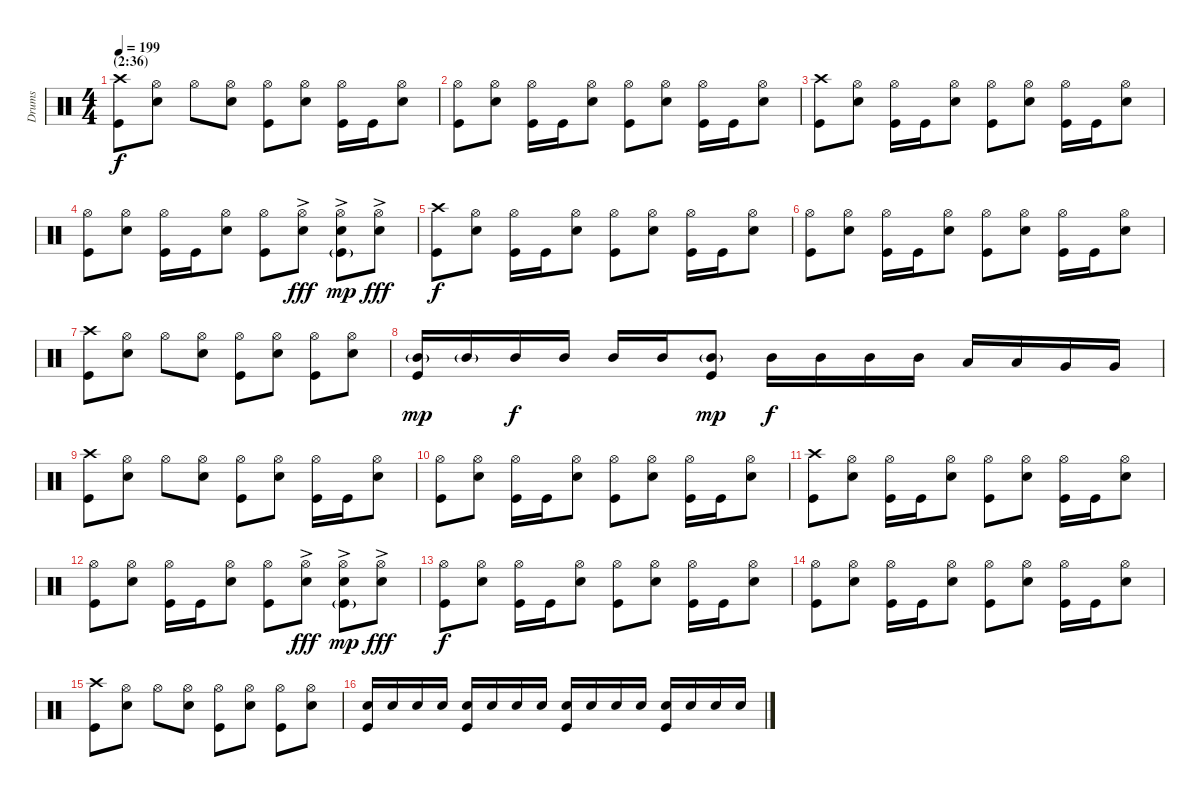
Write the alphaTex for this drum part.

\track ("Drums" "Drums") {instrument percussion}
\staff {score}
\articulation defaults
\ts (4 4)
\section ("" "(2:36)")
\tempo 199
\clef neutral
\ks c
("Crash high (hit)" "Kick (hit)").8{dy f} ("Hi-Hat (open)" "Snare (hit) 2").8 "Hi-Hat (open)".8 ("Hi-Hat (open)" "Snare (hit) 2").8 ("Hi-Hat (open)" "Kick (hit)").8 ("Hi-Hat (open)" "Snare (hit) 2").8 ("Hi-Hat (open)" "Kick (hit)").16 "Kick (hit)".16 ("Hi-Hat (open)" "Snare (hit) 2").8 |
("Hi-Hat (open)" "Kick (hit)").8 ("Hi-Hat (open)" "Snare (hit) 2").8 ("Hi-Hat (open)" "Kick (hit)").16 "Kick (hit)".16 ("Hi-Hat (open)" "Snare (hit) 2").8 ("Hi-Hat (open)" "Kick (hit)").8 ("Hi-Hat (open)" "Snare (hit) 2").8 ("Hi-Hat (open)" "Kick (hit)").16 "Kick (hit)".16 ("Hi-Hat (open)" "Snare (hit) 2").8 |
("Crash high (hit)" "Kick (hit)").8 ("Hi-Hat (open)" "Snare (hit) 2").8 ("Hi-Hat (open)" "Kick (hit)").16 "Kick (hit)".16 ("Hi-Hat (open)" "Snare (hit) 2").8 ("Hi-Hat (open)" "Kick (hit)").8 ("Hi-Hat (open)" "Snare (hit) 2").8 ("Hi-Hat (open)" "Kick (hit)").16 "Kick (hit)".16 ("Hi-Hat (open)" "Snare (hit) 2").8 |
("Hi-Hat (open)" "Kick (hit)").8 ("Hi-Hat (open)" "Snare (hit) 2").8 ("Hi-Hat (open)" "Kick (hit)").16 "Kick (hit)".16 ("Hi-Hat (open)" "Snare (hit) 2").8 ("Hi-Hat (open)" "Kick (hit)").8 ("Hi-Hat (open)"{ac} "Snare (hit) 2"{ac}).8{dy fff} ("Hi-Hat (open)"{ac} "Snare (hit) 2"{ac} "Kick (hit)"{g}).8{dy mp} ("Hi-Hat (open)"{ac} "Snare (hit) 2"{ac}).8{dy fff} |
("Crash high (hit)" "Kick (hit)").8{dy f} ("Hi-Hat (open)" "Snare (hit) 2").8 ("Hi-Hat (open)" "Kick (hit)").16 "Kick (hit)".16 ("Hi-Hat (open)" "Snare (hit) 2").8 ("Hi-Hat (open)" "Kick (hit)").8 ("Hi-Hat (open)" "Snare (hit) 2").8 ("Hi-Hat (open)" "Kick (hit)").16 "Kick (hit)".16 ("Hi-Hat (open)" "Snare (hit) 2").8 |
("Hi-Hat (open)" "Kick (hit)").8 ("Hi-Hat (open)" "Snare (hit) 2").8 ("Hi-Hat (open)" "Kick (hit)").16 "Kick (hit)".16 ("Hi-Hat (open)" "Snare (hit) 2").8 ("Hi-Hat (open)" "Kick (hit)").8 ("Hi-Hat (open)" "Snare (hit) 2").8 ("Hi-Hat (open)" "Kick (hit)").16 "Kick (hit)".16 ("Hi-Hat (open)" "Snare (hit) 2").8 |
("Crash high (hit)" "Kick (hit)").8 ("Hi-Hat (open)" "Snare (hit) 2").8 "Hi-Hat (open)".8 ("Hi-Hat (open)" "Snare (hit) 2").8 ("Hi-Hat (open)" "Kick (hit)").8 ("Hi-Hat (open)" "Snare (hit) 2").8 ("Hi-Hat (open)" "Kick (hit)").8 ("Hi-Hat (open)" "Snare (hit) 2").8 |
("Mid Tom (hit)"{g} "Kick (hit)").16{dy mp} "Mid Tom (hit)"{g}.16 "Mid Tom (hit)".16{dy f} "Mid Tom (hit)".16 "Mid Tom (hit)".16 "Mid Tom (hit)".16 ("Mid Tom (hit)"{g} "Kick (hit)").8{dy mp} "Mid Tom (hit)".16{dy f} "Mid Tom (hit)".16 "Mid Tom (hit)".16 "Mid Tom (hit)".16 "Low Tom (hit)".16 "Low Tom (hit)".16 "Very Low Tom (hit)".16 "Very Low Tom (hit)".16 |
("Crash high (hit)" "Kick (hit)").8 ("Hi-Hat (open)" "Snare (hit) 2").8 "Hi-Hat (open)".8 ("Hi-Hat (open)" "Snare (hit) 2").8 ("Hi-Hat (open)" "Kick (hit)").8 ("Hi-Hat (open)" "Snare (hit) 2").8 ("Hi-Hat (open)" "Kick (hit)").16 "Kick (hit)".16 ("Hi-Hat (open)" "Snare (hit) 2").8 |
("Hi-Hat (open)" "Kick (hit)").8 ("Hi-Hat (open)" "Snare (hit) 2").8 ("Hi-Hat (open)" "Kick (hit)").16 "Kick (hit)".16 ("Hi-Hat (open)" "Snare (hit) 2").8 ("Hi-Hat (open)" "Kick (hit)").8 ("Hi-Hat (open)" "Snare (hit) 2").8 ("Hi-Hat (open)" "Kick (hit)").16 "Kick (hit)".16 ("Hi-Hat (open)" "Snare (hit) 2").8 |
("Crash high (hit)" "Kick (hit)").8 ("Hi-Hat (open)" "Snare (hit) 2").8 ("Hi-Hat (open)" "Kick (hit)").16 "Kick (hit)".16 ("Hi-Hat (open)" "Snare (hit) 2").8 ("Hi-Hat (open)" "Kick (hit)").8 ("Hi-Hat (open)" "Snare (hit) 2").8 ("Hi-Hat (open)" "Kick (hit)").16 "Kick (hit)".16 ("Hi-Hat (open)" "Snare (hit) 2").8 |
("Hi-Hat (open)" "Kick (hit)").8 ("Hi-Hat (open)" "Snare (hit) 2").8 ("Hi-Hat (open)" "Kick (hit)").16 "Kick (hit)".16 ("Hi-Hat (open)" "Snare (hit) 2").8 ("Hi-Hat (open)" "Kick (hit)").8 ("Hi-Hat (open)"{ac} "Snare (hit) 2"{ac}).8{dy fff} ("Hi-Hat (open)"{ac} "Snare (hit) 2"{ac} "Kick (hit)"{g}).8{dy mp} ("Hi-Hat (open)"{ac} "Snare (hit) 2"{ac}).8{dy fff} |
("Hi-Hat (open)" "Kick (hit)").8{dy f} ("Hi-Hat (open)" "Snare (hit) 2").8 ("Hi-Hat (open)" "Kick (hit)").16 "Kick (hit)".16 ("Hi-Hat (open)" "Snare (hit) 2").8 ("Hi-Hat (open)" "Kick (hit)").8 ("Hi-Hat (open)" "Snare (hit) 2").8 ("Hi-Hat (open)" "Kick (hit)").16 "Kick (hit)".16 ("Hi-Hat (open)" "Snare (hit) 2").8 |
("Hi-Hat (open)" "Kick (hit)").8 ("Hi-Hat (open)" "Snare (hit) 2").8 ("Hi-Hat (open)" "Kick (hit)").16 "Kick (hit)".16 ("Hi-Hat (open)" "Snare (hit) 2").8 ("Hi-Hat (open)" "Kick (hit)").8 ("Hi-Hat (open)" "Snare (hit) 2").8 ("Hi-Hat (open)" "Kick (hit)").16 "Kick (hit)".16 ("Hi-Hat (open)" "Snare (hit) 2").8 |
("Crash high (hit)" "Kick (hit)").8 ("Hi-Hat (open)" "Snare (hit) 2").8 "Hi-Hat (open)".8 ("Hi-Hat (open)" "Snare (hit) 2").8 ("Hi-Hat (open)" "Kick (hit)").8 ("Hi-Hat (open)" "Snare (hit) 2").8 ("Hi-Hat (open)" "Kick (hit)").8 ("Hi-Hat (open)" "Snare (hit) 2").8 |
("Snare (hit) 2" "Kick (hit)").16 "Snare (hit) 2".16 "Snare (hit) 2".16 "Snare (hit) 2".16 ("Snare (hit) 2" "Kick (hit)").16 "Snare (hit) 2".16 "Snare (hit) 2".16 "Snare (hit) 2".16 ("Snare (hit) 2" "Kick (hit)").16 "Snare (hit) 2".16 "Snare (hit) 2".16 "Snare (hit) 2".16 ("Snare (hit) 2" "Kick (hit)").16 "Snare (hit) 2".16 "Snare (hit) 2".16 "Snare (hit) 2".16
